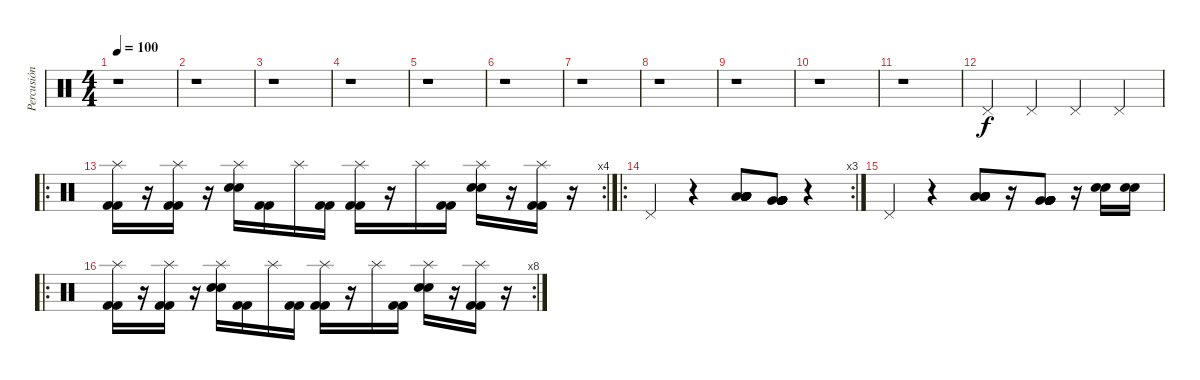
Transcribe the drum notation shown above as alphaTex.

\track ("Percusión" "Percusión") {instrument percussion}
\staff {score}
\articulation defaults
\ts (4 4)
\tempo 100
\clef neutral
\ks c
r.1{dy f} |
r.1 |
r.1 |
r.1 |
r.1 |
r.1 |
r.1 |
r.1 |
r.1 |
r.1 |
r.1 |
"Pedal Hi-Hat (hit)".4 "Pedal Hi-Hat (hit)".4 "Pedal Hi-Hat (hit)".4 "Pedal Hi-Hat (hit)".4 |
\ro
\rc 4
("Splash (hit)" "Kick (hit) 2" "Kick (hit) 2").16 r.16 ("Splash (hit)" "Kick (hit) 2" "Kick (hit) 2").16 r.16 ("Splash (hit)" "Electric Snare (hit)" "Electric Snare (hit)").16 ("Kick (hit) 2" "Kick (hit) 2").16 "Splash (hit)".16 ("Kick (hit) 2" "Kick (hit) 2").16 ("Splash (hit)" "Kick (hit) 2" "Kick (hit) 2").16 r.16 "Splash (hit)".16 ("Kick (hit) 2" "Kick (hit) 2").16 ("Splash (hit)" "Electric Snare (hit)" "Electric Snare (hit)").16 r.16 ("Splash (hit)" "Kick (hit) 2" "Kick (hit) 2").16 r.16 |
\ro
\rc 3 "Pedal Hi-Hat (hit)".4
r.4 ("Low Tom (hit)" "Low Tom (hit)" "Low Tom (hit)" "Low Tom (hit)" "Low Tom (hit)" "Low Tom (hit)").8 ("Very Low Tom (hit)" "Very Low Tom (hit)" "Very Low Tom (hit)" "Very Low Tom (hit)" "Very Low Tom (hit)" "Very Low Tom (hit)").8 r.4 |
"Pedal Hi-Hat (hit)".4 r.4 ("Low Tom (hit)" "Low Tom (hit)" "Low Tom (hit)" "Low Tom (hit)" "Low Tom (hit)" "Low Tom (hit)").8 r.16 ("Very Low Tom (hit)" "Very Low Tom (hit)" "Very Low Tom (hit)" "Very Low Tom (hit)" "Very Low Tom (hit)" "Very Low Tom (hit)").8 r.16 ("Electric Snare (hit)" "Electric Snare (hit)").16 ("Electric Snare (hit)" "Electric Snare (hit)").16 |
\ro
\rc 8
("Splash (hit)" "Kick (hit) 2" "Kick (hit) 2").16 r.16 ("Splash (hit)" "Kick (hit) 2" "Kick (hit) 2").16 r.16 ("Splash (hit)" "Electric Snare (hit)" "Electric Snare (hit)").16 ("Kick (hit) 2" "Kick (hit) 2").16 "Splash (hit)".16 ("Kick (hit) 2" "Kick (hit) 2").16 ("Splash (hit)" "Kick (hit) 2" "Kick (hit) 2").16 r.16 "Splash (hit)".16 ("Kick (hit) 2" "Kick (hit) 2").16 ("Splash (hit)" "Electric Snare (hit)" "Electric Snare (hit)").16 r.16 ("Splash (hit)" "Kick (hit) 2" "Kick (hit) 2").16 r.16
